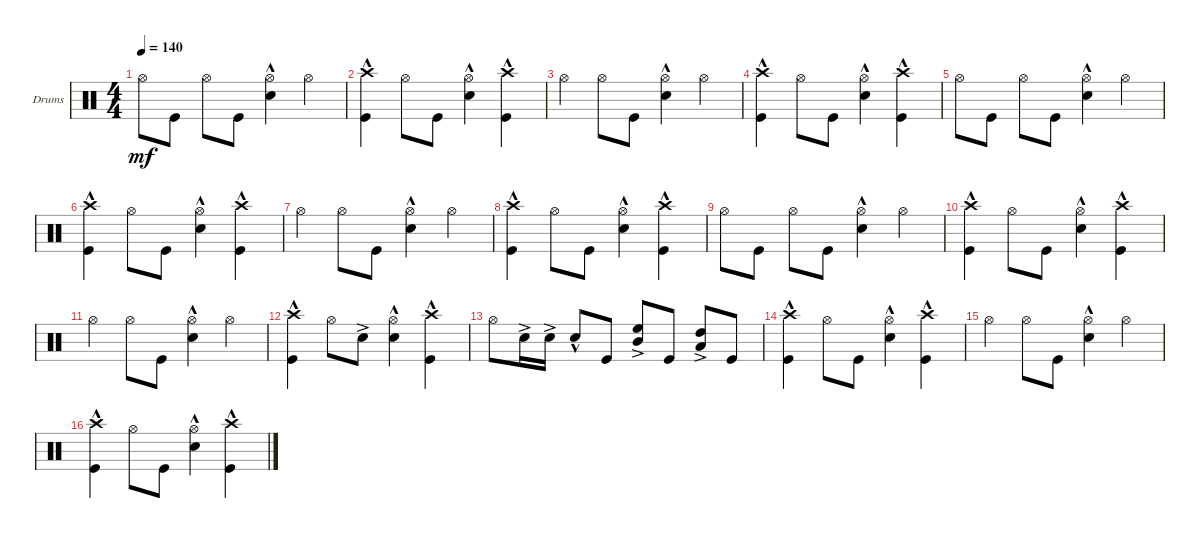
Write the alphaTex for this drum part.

\bracketExtendMode groupsimilarinstruments
\firstSystemTrackNameOrientation horizontal
\otherSystemsTrackNameOrientation horizontal
\track ("Drumkit" "Drums") {instrument percussion}
\staff {score}
\articulation defaults
\ts (4 4)
\tempo 140
\clef neutral
\ks c "Hi-Hat (open)".8{dy mf} "Kick (hit)".8 "Hi-Hat (open)".8 "Kick (hit)".8
("Hi-Hat (open)" "Snare (hit) 2"{hac}).4 "Hi-Hat (open)".4 |
("Kick (hit)" "Crash high (hit)"{hac}).4 "Hi-Hat (open)".8 "Kick (hit)".8 ("Hi-Hat (open)" "Snare (hit) 2"{hac}).4 ("Kick (hit)" "Crash high (hit)"{hac}).4 |
"Hi-Hat (open)".4 "Hi-Hat (open)".8 "Kick (hit)".8 ("Hi-Hat (open)" "Snare (hit) 2"{hac}).4 "Hi-Hat (open)".4 |
("Kick (hit)" "Crash high (hit)"{hac}).4 "Hi-Hat (open)".8 "Kick (hit)".8 ("Hi-Hat (open)" "Snare (hit) 2"{hac}).4 ("Kick (hit)" "Crash high (hit)"{hac}).4 |
"Hi-Hat (open)".8 "Kick (hit)".8 "Hi-Hat (open)".8 "Kick (hit)".8 ("Hi-Hat (open)" "Snare (hit) 2"{hac}).4 "Hi-Hat (open)".4 |
("Kick (hit)" "Crash high (hit)"{hac}).4 "Hi-Hat (open)".8 "Kick (hit)".8 ("Hi-Hat (open)" "Snare (hit) 2"{hac}).4 ("Kick (hit)" "Crash high (hit)"{hac}).4 |
"Hi-Hat (open)".4 "Hi-Hat (open)".8 "Kick (hit)".8 ("Hi-Hat (open)" "Snare (hit) 2"{hac}).4 "Hi-Hat (open)".4 |
("Kick (hit)" "Crash high (hit)"{hac}).4 "Hi-Hat (open)".8 "Kick (hit)".8 ("Hi-Hat (open)" "Snare (hit) 2"{hac}).4 ("Kick (hit)" "Crash high (hit)"{hac}).4 |
"Hi-Hat (open)".8 "Kick (hit)".8 "Hi-Hat (open)".8 "Kick (hit)".8 ("Hi-Hat (open)" "Snare (hit) 2"{hac}).4 "Hi-Hat (open)".4 |
("Kick (hit)" "Crash high (hit)"{hac}).4 "Hi-Hat (open)".8 "Kick (hit)".8 ("Hi-Hat (open)" "Snare (hit) 2"{hac}).4 ("Kick (hit)" "Crash high (hit)"{hac}).4 |
"Hi-Hat (open)".4 "Hi-Hat (open)".8 "Kick (hit)".8 ("Hi-Hat (open)" "Snare (hit) 2"{hac}).4 "Hi-Hat (open)".4 |
("Kick (hit)" "Crash high (hit)"{hac}).4 "Hi-Hat (open)".8 "Snare (hit) 2"{ac}.8 ("Hi-Hat (open)" "Snare (hit) 2"{hac}).4 ("Kick (hit)" "Crash high (hit)"{hac}).4 |
"Hi-Hat (open)".8 "Snare (hit) 2"{ac}.16 "Snare (hit) 2"{ac}.16 "Snare (hit) 2"{hac}.8 "Kick (hit)".8 ("High Floor Tom (hit)"{ac} "Mid Tom (hit)"{ac}).8 "Kick (hit)".8 ("High Tom (hit)"{ac} "Low Tom (hit)"{ac}).8 "Kick (hit)".8 |
("Kick (hit)" "Crash high (hit)"{hac}).4 "Hi-Hat (open)".8 "Kick (hit)".8 ("Hi-Hat (open)" "Snare (hit) 2"{hac}).4 ("Kick (hit)" "Crash high (hit)"{hac}).4 |
"Hi-Hat (open)".4 "Hi-Hat (open)".8 "Kick (hit)".8 ("Hi-Hat (open)" "Snare (hit) 2"{hac}).4 "Hi-Hat (open)".4 |
("Kick (hit)" "Crash high (hit)"{hac}).4 "Hi-Hat (open)".8 "Kick (hit)".8 ("Hi-Hat (open)" "Snare (hit) 2"{hac}).4 ("Kick (hit)" "Crash high (hit)"{hac}).4
